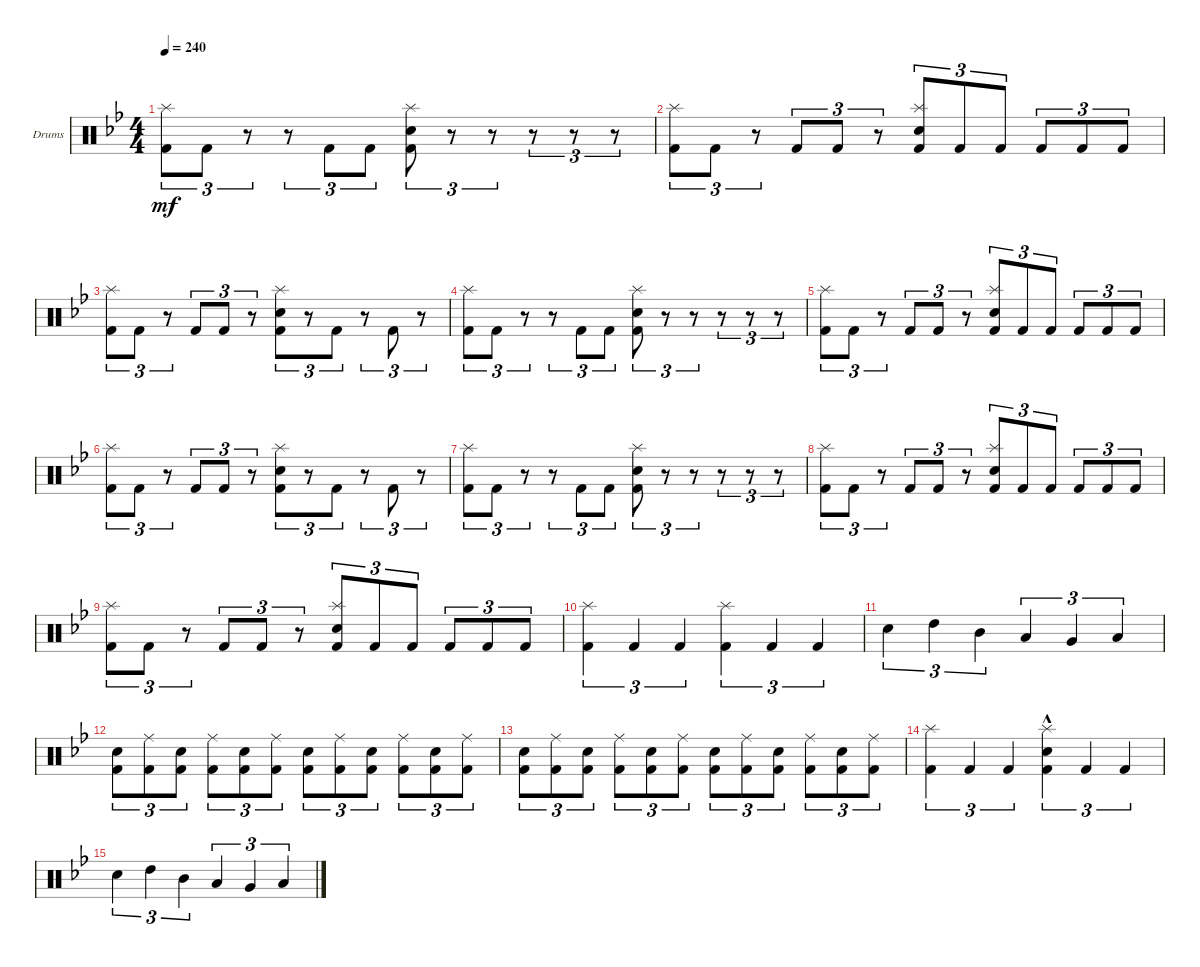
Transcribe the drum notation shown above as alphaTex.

\defaultSystemsLayout 4
\bracketExtendMode groupsimilarinstruments
\firstSystemTrackNameOrientation horizontal
\otherSystemsTrackNameOrientation horizontal
\track ("Drumkit" "Drums") {instrument percussion}
\staff {score}
\articulation defaults
\ts (4 4)
\tempo 240
\clef neutral
\ks bb
("Kick (hit) 2"{acc forcenatural} "Splash (hit)"{acc forcenatural}).8{tu (3 2) dy mf beam Down} "Kick (hit) 2"{acc forcenatural}.8{tu (3 2) beam Down} r.8{tu (3 2) beam Down} r.8{tu (3 2) beam Down} "Kick (hit) 2"{acc forcenatural}.8{tu (3 2) beam Up} "Kick (hit) 2"{acc forcenatural}.8{tu (3 2) beam Up} ("Kick (hit) 2"{acc forcenatural} "Splash (hit)"{acc forcenatural} "Snare (hit) 2"{acc forcenatural}).8{tu (3 2) beam Down} r.8{tu (3 2) beam Down} r.8{tu (3 2) beam Down} r.8{tu (3 2) beam Down} r.8{tu (3 2) beam Down} r.8{tu (3 2) beam Down} |
("Kick (hit) 2"{acc forcenatural} "Splash (hit)"{acc forcenatural}).8{tu (3 2) beam Down} "Kick (hit) 2"{acc forcenatural}.8{tu (3 2) beam Down} r.8{tu (3 2) beam Down} "Kick (hit) 2"{acc forcenatural}.8{tu (3 2) beam Up} "Kick (hit) 2"{acc forcenatural}.8{tu (3 2) beam Up} r.8{tu (3 2) beam Up} ("Kick (hit) 2"{acc forcenatural} "Splash (hit)"{acc forcenatural} "Snare (hit) 2"{acc forcenatural}).8{tu (3 2) beam Up} "Kick (hit) 2"{acc forcenatural}.8{tu (3 2) beam Up} "Kick (hit) 2"{acc forcenatural}.8{tu (3 2) beam Up} "Kick (hit) 2"{acc forcenatural}.8{tu (3 2) beam Up} "Kick (hit) 2"{acc forcenatural}.8{tu (3 2) beam Up} "Kick (hit) 2"{acc forcenatural}.8{tu (3 2) beam Up} |
("Kick (hit) 2"{acc forcenatural} "Splash (hit)"{acc forcenatural}).8{tu (3 2) beam Down} "Kick (hit) 2"{acc forcenatural}.8{tu (3 2) beam Down} r.8{tu (3 2) beam Down} "Kick (hit) 2"{acc forcenatural}.8{tu (3 2) beam Up} "Kick (hit) 2"{acc forcenatural}.8{tu (3 2) beam Up} r.8{tu (3 2) beam Up} ("Kick (hit) 2"{acc forcenatural} "Splash (hit)"{acc forcenatural} "Snare (hit) 2"{acc forcenatural}).8{tu (3 2) beam Down} r.8{tu (3 2) beam Down} "Kick (hit) 2"{acc forcenatural}.8{tu (3 2) beam Down} r.8{tu (3 2) beam Down} "Kick (hit) 2"{acc forcenatural}.8{tu (3 2) beam Up} r.8{tu (3 2) beam Up} |
("Kick (hit) 2"{acc forcenatural} "Splash (hit)"{acc forcenatural}).8{tu (3 2) beam Down} "Kick (hit) 2"{acc forcenatural}.8{tu (3 2) beam Down} r.8{tu (3 2) beam Down} r.8{tu (3 2) beam Down} "Kick (hit) 2"{acc forcenatural}.8{tu (3 2) beam Up} "Kick (hit) 2"{acc forcenatural}.8{tu (3 2) beam Up} ("Kick (hit) 2"{acc forcenatural} "Splash (hit)"{acc forcenatural} "Snare (hit) 2"{acc forcenatural}).8{tu (3 2) beam Down} r.8{tu (3 2) beam Down} r.8{tu (3 2) beam Down} r.8{tu (3 2) beam Down} r.8{tu (3 2) beam Down} r.8{tu (3 2) beam Down} |
("Kick (hit) 2"{acc forcenatural} "Splash (hit)"{acc forcenatural}).8{tu (3 2) beam Down} "Kick (hit) 2"{acc forcenatural}.8{tu (3 2) beam Down} r.8{tu (3 2) beam Down} "Kick (hit) 2"{acc forcenatural}.8{tu (3 2) beam Up} "Kick (hit) 2"{acc forcenatural}.8{tu (3 2) beam Up} r.8{tu (3 2) beam Up} ("Kick (hit) 2"{acc forcenatural} "Splash (hit)"{acc forcenatural} "Snare (hit) 2"{acc forcenatural}).8{tu (3 2) beam Up} "Kick (hit) 2"{acc forcenatural}.8{tu (3 2) beam Up} "Kick (hit) 2"{acc forcenatural}.8{tu (3 2) beam Up} "Kick (hit) 2"{acc forcenatural}.8{tu (3 2) beam Up} "Kick (hit) 2"{acc forcenatural}.8{tu (3 2) beam Up} "Kick (hit) 2"{acc forcenatural}.8{tu (3 2) beam Up} |
("Kick (hit) 2"{acc forcenatural} "Splash (hit)"{acc forcenatural}).8{tu (3 2) beam Down} "Kick (hit) 2"{acc forcenatural}.8{tu (3 2) beam Down} r.8{tu (3 2) beam Down} "Kick (hit) 2"{acc forcenatural}.8{tu (3 2) beam Up} "Kick (hit) 2"{acc forcenatural}.8{tu (3 2) beam Up} r.8{tu (3 2) beam Up} ("Kick (hit) 2"{acc forcenatural} "Splash (hit)"{acc forcenatural} "Snare (hit) 2"{acc forcenatural}).8{tu (3 2) beam Down} r.8{tu (3 2) beam Down} "Kick (hit) 2"{acc forcenatural}.8{tu (3 2) beam Down} r.8{tu (3 2) beam Down} "Kick (hit) 2"{acc forcenatural}.8{tu (3 2) beam Up} r.8{tu (3 2) beam Up} |
("Kick (hit) 2"{acc forcenatural} "Splash (hit)"{acc forcenatural}).8{tu (3 2) beam Down} "Kick (hit) 2"{acc forcenatural}.8{tu (3 2) beam Down} r.8{tu (3 2) beam Down} r.8{tu (3 2) beam Down} "Kick (hit) 2"{acc forcenatural}.8{tu (3 2) beam Up} "Kick (hit) 2"{acc forcenatural}.8{tu (3 2) beam Up} ("Kick (hit) 2"{acc forcenatural} "Splash (hit)"{acc forcenatural} "Snare (hit) 2"{acc forcenatural}).8{tu (3 2) beam Down} r.8{tu (3 2) beam Down} r.8{tu (3 2) beam Down} r.8{tu (3 2) beam Down} r.8{tu (3 2) beam Down} r.8{tu (3 2) beam Down} |
("Kick (hit) 2"{acc forcenatural} "Splash (hit)"{acc forcenatural}).8{tu (3 2) beam Down} "Kick (hit) 2"{acc forcenatural}.8{tu (3 2) beam Down} r.8{tu (3 2) beam Down} "Kick (hit) 2"{acc forcenatural}.8{tu (3 2) beam Up} "Kick (hit) 2"{acc forcenatural}.8{tu (3 2) beam Up} r.8{tu (3 2) beam Up} ("Kick (hit) 2"{acc forcenatural} "Splash (hit)"{acc forcenatural} "Snare (hit) 2"{acc forcenatural}).8{tu (3 2) beam Up} "Kick (hit) 2"{acc forcenatural}.8{tu (3 2) beam Up} "Kick (hit) 2"{acc forcenatural}.8{tu (3 2) beam Up} "Kick (hit) 2"{acc forcenatural}.8{tu (3 2) beam Up} "Kick (hit) 2"{acc forcenatural}.8{tu (3 2) beam Up} "Kick (hit) 2"{acc forcenatural}.8{tu (3 2) beam Up} |
("Kick (hit) 2"{acc forcenatural} "Splash (hit)"{acc forcenatural}).8{tu (3 2) beam Down} "Kick (hit) 2"{acc forcenatural}.8{tu (3 2) beam Down} r.8{tu (3 2) beam Down} "Kick (hit) 2"{acc forcenatural}.8{tu (3 2) beam Up} "Kick (hit) 2"{acc forcenatural}.8{tu (3 2) beam Up} r.8{tu (3 2) beam Up} ("Kick (hit) 2"{acc forcenatural} "Splash (hit)"{acc forcenatural} "Snare (hit) 2"{acc forcenatural}).8{tu (3 2) beam Up} "Kick (hit) 2"{acc forcenatural}.8{tu (3 2) beam Up} "Kick (hit) 2"{acc forcenatural}.8{tu (3 2) beam Up} "Kick (hit) 2"{acc forcenatural}.8{tu (3 2) beam Up} "Kick (hit) 2"{acc forcenatural}.8{tu (3 2) beam Up} "Kick (hit) 2"{acc forcenatural}.8{tu (3 2) beam Up} |
("Kick (hit) 2"{acc forcenatural} "Splash (hit)"{acc forcenatural}).4{tu (3 2) beam Down} "Kick (hit) 2"{acc forcenatural}.4{tu (3 2) beam Up} "Kick (hit) 2"{acc forcenatural}.4{tu (3 2) beam Up} ("Kick (hit) 2"{acc forcenatural} "Splash (hit)"{acc forcenatural}).4{tu (3 2) beam Down} "Kick (hit) 2"{acc forcenatural}.4{tu (3 2) beam Up} "Kick (hit) 2"{acc forcenatural}.4{tu (3 2) beam Up} |
"Snare (hit) 2"{acc forcenatural}.4{tu (3 2) beam Down} "High Tom (hit)"{acc forcenatural}.4{tu (3 2) beam Down} "Mid Tom (hit)"{acc forcenatural}.4{tu (3 2) beam Down} "Low Tom (hit)"{acc forcenatural}.4{tu (3 2) beam Up} "Very Low Tom (hit)"{acc forcenatural}.4{tu (3 2) beam Up} "Low Tom (hit)"{acc forcenatural}.4{tu (3 2) beam Up} |
("Kick (hit) 2"{acc forcenatural} "Snare (hit) 2"{acc forcenatural}).8{tu (3 2) beam Down} ("Kick (hit) 2"{acc forcenatural} "Ride (middle)"{acc forcenatural}).8{tu (3 2) beam Down} ("Kick (hit) 2"{acc forcenatural} "Snare (hit) 2"{acc forcenatural}).8{tu (3 2) beam Down} ("Kick (hit) 2"{acc forcenatural} "Ride (middle)"{acc forcenatural}).8{tu (3 2) beam Down} ("Kick (hit) 2"{acc forcenatural} "Snare (hit) 2"{acc forcenatural}).8{tu (3 2) beam Down} ("Kick (hit) 2"{acc forcenatural} "Ride (middle)"{acc forcenatural}).8{tu (3 2) beam Down} ("Kick (hit) 2"{acc forcenatural} "Snare (hit) 2"{acc forcenatural}).8{tu (3 2) beam Down} ("Kick (hit) 2"{acc forcenatural} "Ride (middle)"{acc forcenatural}).8{tu (3 2) beam Down} ("Kick (hit) 2"{acc forcenatural} "Snare (hit) 2"{acc forcenatural}).8{tu (3 2) beam Down} ("Kick (hit) 2"{acc forcenatural} "Ride (middle)"{acc forcenatural}).8{tu (3 2) beam Down} ("Kick (hit) 2"{acc forcenatural} "Snare (hit) 2"{acc forcenatural}).8{tu (3 2) beam Down} ("Kick (hit) 2"{acc forcenatural} "Ride (middle)"{acc forcenatural}).8{tu (3 2) beam Down} |
("Kick (hit) 2"{acc forcenatural} "Snare (hit) 2"{acc forcenatural}).8{tu (3 2) beam Down} ("Kick (hit) 2"{acc forcenatural} "Ride (middle)"{acc forcenatural}).8{tu (3 2) beam Down} ("Kick (hit) 2"{acc forcenatural} "Snare (hit) 2"{acc forcenatural}).8{tu (3 2) beam Down} ("Kick (hit) 2"{acc forcenatural} "Ride (middle)"{acc forcenatural}).8{tu (3 2) beam Down} ("Kick (hit) 2"{acc forcenatural} "Snare (hit) 2"{acc forcenatural}).8{tu (3 2) beam Down} ("Kick (hit) 2"{acc forcenatural} "Ride (middle)"{acc forcenatural}).8{tu (3 2) beam Down} ("Kick (hit) 2"{acc forcenatural} "Snare (hit) 2"{acc forcenatural}).8{tu (3 2) beam Down} ("Kick (hit) 2"{acc forcenatural} "Ride (middle)"{acc forcenatural}).8{tu (3 2) beam Down} ("Kick (hit) 2"{acc forcenatural} "Snare (hit) 2"{acc forcenatural}).8{tu (3 2) beam Down} ("Kick (hit) 2"{acc forcenatural} "Ride (middle)"{acc forcenatural}).8{tu (3 2) beam Down} ("Kick (hit) 2"{acc forcenatural} "Snare (hit) 2"{acc forcenatural}).8{tu (3 2) beam Down} ("Kick (hit) 2"{acc forcenatural} "Ride (middle)"{acc forcenatural}).8{tu (3 2) beam Down} |
("Kick (hit) 2"{acc forcenatural} "Splash (hit)"{acc forcenatural}).4{tu (3 2) beam Down} "Kick (hit) 2"{acc forcenatural}.4{tu (3 2) beam Up} "Kick (hit) 2"{acc forcenatural}.4{tu (3 2) beam Up} ("Kick (hit) 2"{acc forcenatural} "Splash (hit)"{acc forcenatural} "Snare (hit) 2"{hac acc forcenatural}).4{tu (3 2) beam Down} "Kick (hit) 2"{acc forcenatural}.4{tu (3 2) beam Up} "Kick (hit) 2"{acc forcenatural}.4{tu (3 2) beam Up} |
"Snare (hit) 2"{acc forcenatural}.4{tu (3 2) beam Down} "High Tom (hit)"{acc forcenatural}.4{tu (3 2) beam Down} "Mid Tom (hit)"{acc forcenatural}.4{tu (3 2) beam Down} "Low Tom (hit)"{acc forcenatural}.4{tu (3 2) beam Up} "Very Low Tom (hit)"{acc forcenatural}.4{tu (3 2) beam Up} "Low Tom (hit)"{acc forcenatural}.4{tu (3 2) beam Up}
